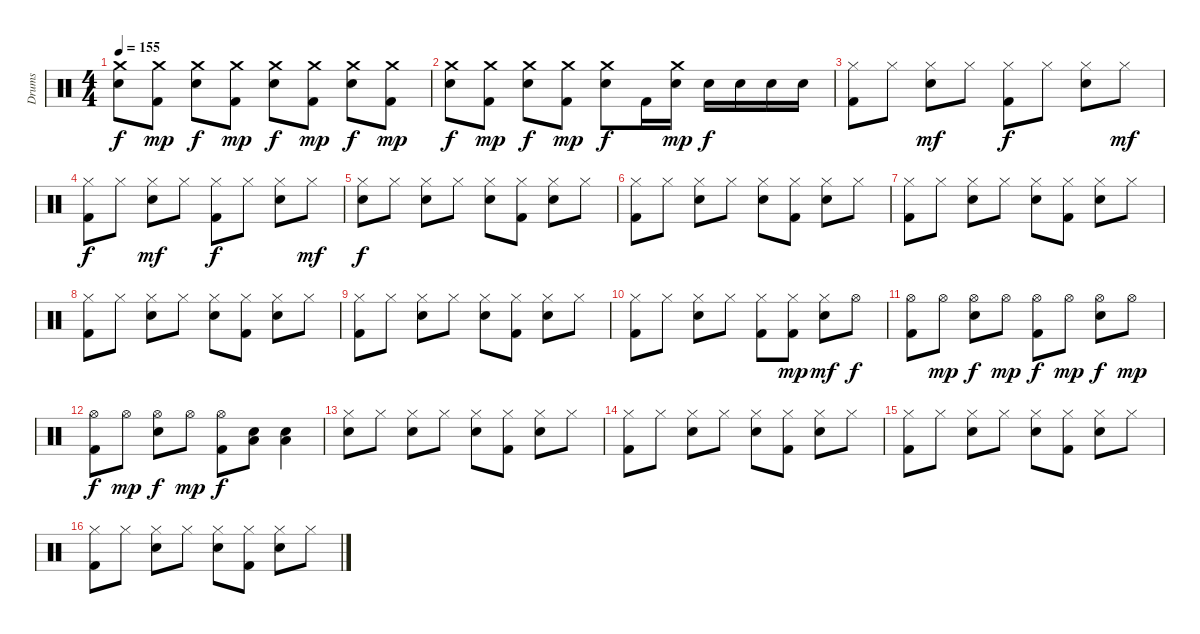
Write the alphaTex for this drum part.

\track ("Drums" "Drums") {instrument percussion}
\staff {score}
\articulation defaults
\ts (4 4)
\tempo 155
\clef neutral
\ks c
("Crash medium (hit)" "Snare (hit) 2").8{dy f} ("Crash medium (hit)" "Kick (hit) 2").8{dy mp} ("Crash medium (hit)" "Snare (hit) 2").8{dy f} ("Crash medium (hit)" "Kick (hit) 2").8{dy mp} ("Crash medium (hit)" "Snare (hit) 2").8{dy f} ("Crash medium (hit)" "Kick (hit) 2").8{dy mp} ("Crash medium (hit)" "Snare (hit) 2").8{dy f} ("Crash medium (hit)" "Kick (hit) 2").8{dy mp} |
("Crash medium (hit)" "Snare (hit) 2").8{dy f} ("Crash medium (hit)" "Kick (hit) 2").8{dy mp} ("Crash medium (hit)" "Snare (hit) 2").8{dy f} ("Crash medium (hit)" "Kick (hit) 2").8{dy mp} ("Crash medium (hit)" "Snare (hit) 2").8{dy f} "Kick (hit) 2".16 ("Crash medium (hit)" "Snare (hit) 2").16{dy mp} "Snare (hit) 2".16{dy f} "Snare (hit) 2".16 "Snare (hit) 2".16 "Snare (hit) 2".16 |
("Hi-Hat (closed)" "Kick (hit) 2").8 "Hi-Hat (closed)".8 ("Hi-Hat (closed)" "Snare (hit) 2").8{dy mf} "Hi-Hat (closed)".8 ("Hi-Hat (closed)" "Kick (hit) 2").8{dy f} "Hi-Hat (closed)".8 ("Hi-Hat (closed)" "Snare (hit) 2").8 "Hi-Hat (closed)".8{dy mf} |
("Hi-Hat (closed)" "Kick (hit) 2").8{dy f} "Hi-Hat (closed)".8 ("Hi-Hat (closed)" "Snare (hit) 2").8{dy mf} "Hi-Hat (closed)".8 ("Hi-Hat (closed)" "Kick (hit) 2").8{dy f} "Hi-Hat (closed)".8 ("Hi-Hat (closed)" "Snare (hit) 2").8 "Hi-Hat (closed)".8{dy mf} |
("Hi-Hat (closed)" "Snare (hit) 2").8{dy f} "Hi-Hat (closed)".8 ("Hi-Hat (closed)" "Snare (hit) 2").8 "Hi-Hat (closed)".8 ("Hi-Hat (closed)" "Snare (hit) 2").8 ("Hi-Hat (closed)" "Kick (hit) 2").8 ("Hi-Hat (closed)" "Snare (hit) 2").8 "Hi-Hat (closed)".8 |
("Hi-Hat (closed)" "Kick (hit) 2").8 "Hi-Hat (closed)".8 ("Hi-Hat (closed)" "Snare (hit) 2").8 "Hi-Hat (closed)".8 ("Hi-Hat (closed)" "Snare (hit) 2").8 ("Hi-Hat (closed)" "Kick (hit) 2").8 ("Hi-Hat (closed)" "Snare (hit) 2").8 "Hi-Hat (closed)".8 |
("Hi-Hat (closed)" "Kick (hit) 2").8 "Hi-Hat (closed)".8 ("Hi-Hat (closed)" "Snare (hit) 2").8 "Hi-Hat (closed)".8 ("Hi-Hat (closed)" "Snare (hit) 2").8 ("Hi-Hat (closed)" "Kick (hit) 2").8 ("Hi-Hat (closed)" "Snare (hit) 2").8 "Hi-Hat (closed)".8 |
("Hi-Hat (closed)" "Kick (hit) 2").8 "Hi-Hat (closed)".8 ("Hi-Hat (closed)" "Snare (hit) 2").8 "Hi-Hat (closed)".8 ("Hi-Hat (closed)" "Snare (hit) 2").8 ("Hi-Hat (closed)" "Kick (hit) 2").8 ("Hi-Hat (closed)" "Snare (hit) 2").8 "Hi-Hat (closed)".8 |
("Hi-Hat (closed)" "Kick (hit) 2").8 "Hi-Hat (closed)".8 ("Hi-Hat (closed)" "Snare (hit) 2").8 "Hi-Hat (closed)".8 ("Hi-Hat (closed)" "Snare (hit) 2").8 ("Hi-Hat (closed)" "Kick (hit) 2").8 ("Hi-Hat (closed)" "Snare (hit) 2").8 "Hi-Hat (closed)".8 |
("Hi-Hat (closed)" "Kick (hit) 2").8 "Hi-Hat (closed)".8 ("Hi-Hat (closed)" "Snare (hit) 2").8 "Hi-Hat (closed)".8 ("Hi-Hat (closed)" "Kick (hit) 2").8 ("Hi-Hat (closed)" "Kick (hit) 2").8{dy mp} ("Hi-Hat (closed)" "Snare (hit) 2").8{dy mf} "Hi-Hat (open)".8{dy f} |
("Hi-Hat (open)" "Kick (hit) 2").8 "Hi-Hat (open)".8{dy mp} ("Hi-Hat (open)" "Snare (hit) 2").8{dy f} "Hi-Hat (open)".8{dy mp} ("Hi-Hat (open)" "Kick (hit) 2").8{dy f} "Hi-Hat (open)".8{dy mp} ("Hi-Hat (open)" "Snare (hit) 2").8{dy f} "Hi-Hat (open)".8{dy mp} |
("Hi-Hat (open)" "Kick (hit) 2").8{dy f} "Hi-Hat (open)".8{dy mp} ("Hi-Hat (open)" "Snare (hit) 2").8{dy f} "Hi-Hat (open)".8{dy mp} ("Hi-Hat (open)" "Kick (hit) 2").8{dy f} ("Low Tom (hit)" "Snare (hit) 2").8 ("Low Tom (hit)" "Snare (hit) 2").4 |
("Hi-Hat (closed)" "Snare (hit) 2").8 "Hi-Hat (closed)".8 ("Hi-Hat (closed)" "Snare (hit) 2").8 "Hi-Hat (closed)".8 ("Hi-Hat (closed)" "Snare (hit) 2").8 ("Hi-Hat (closed)" "Kick (hit) 2").8 ("Hi-Hat (closed)" "Snare (hit) 2").8 "Hi-Hat (closed)".8 |
("Hi-Hat (closed)" "Kick (hit) 2").8 "Hi-Hat (closed)".8 ("Hi-Hat (closed)" "Snare (hit) 2").8 "Hi-Hat (closed)".8 ("Hi-Hat (closed)" "Snare (hit) 2").8 ("Hi-Hat (closed)" "Kick (hit) 2").8 ("Hi-Hat (closed)" "Snare (hit) 2").8 "Hi-Hat (closed)".8 |
("Hi-Hat (closed)" "Kick (hit) 2").8 "Hi-Hat (closed)".8 ("Hi-Hat (closed)" "Snare (hit) 2").8 "Hi-Hat (closed)".8 ("Hi-Hat (closed)" "Snare (hit) 2").8 ("Hi-Hat (closed)" "Kick (hit) 2").8 ("Hi-Hat (closed)" "Snare (hit) 2").8 "Hi-Hat (closed)".8 |
("Hi-Hat (closed)" "Kick (hit) 2").8 "Hi-Hat (closed)".8 ("Hi-Hat (closed)" "Snare (hit) 2").8 "Hi-Hat (closed)".8 ("Hi-Hat (closed)" "Snare (hit) 2").8 ("Hi-Hat (closed)" "Kick (hit) 2").8 ("Hi-Hat (closed)" "Snare (hit) 2").8 "Hi-Hat (closed)".8
